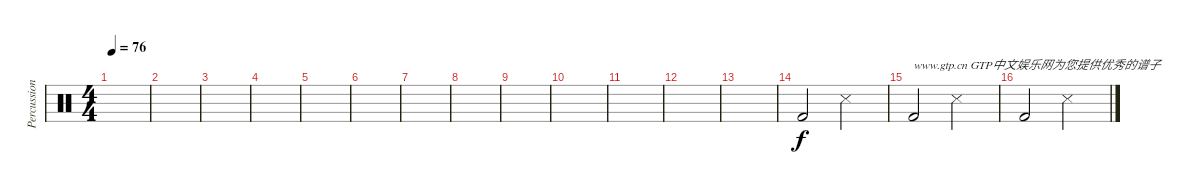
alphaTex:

\track ("Percussion" "Percussion") {instrument percussion}
\staff {score}
\articulation defaults
\ts (4 4)
\tempo 76
\clef neutral
\ks c
|
|
|
|
|
|
|
|
|
|
|
|
|
"Kick (hit) 2".2 "Snare (side stick) 3".2 |
"Kick (hit) 2".2{txt "www.gtp.cn GTP中文娱乐网为您提供优秀的谱子"} "Snare (side stick) 3".2 |
"Kick (hit) 2".2 "Snare (side stick) 3".2
